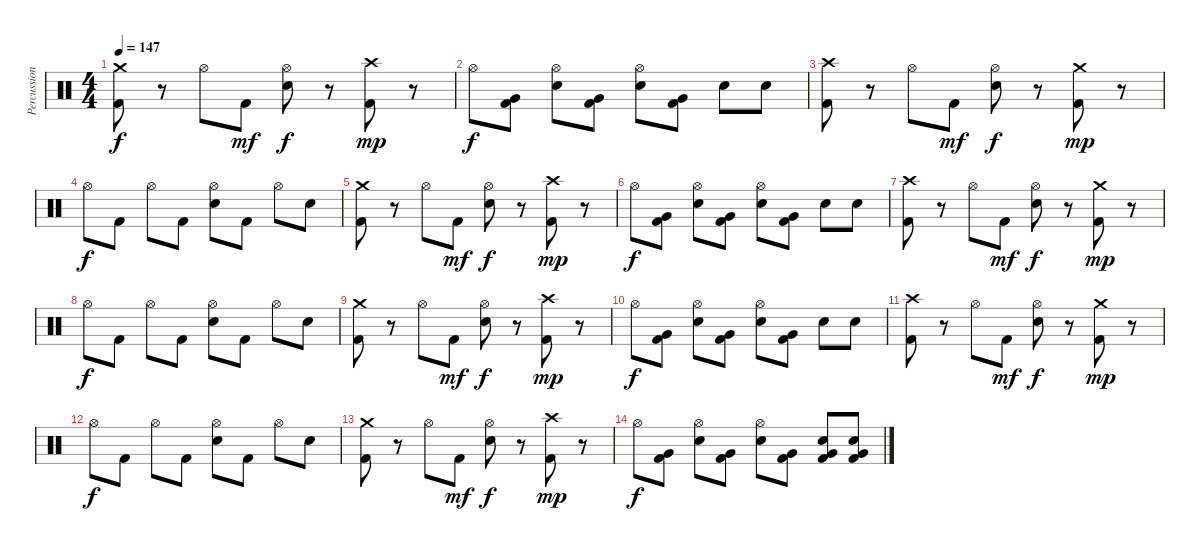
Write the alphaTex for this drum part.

\track ("Percussion" "Percussion") {instrument percussion}
\staff {score}
\articulation defaults
\ts (4 4)
\tempo 147
\clef neutral
\ks c
("Kick (hit) 2" "Crash medium (hit)").8{dy f} r.8 "Hi-Hat (open)".8 "Kick (hit) 2".8{dy mf} ("Electric Snare (hit)" "Hi-Hat (open)").8{dy f} r.8 ("Kick (hit) 2" "Crash high (hit)").8{dy mp} r.8 |
"Hi-Hat (open)".8{dy f} ("Kick (hit) 2" "Very Low Tom (hit)").8 ("Electric Snare (hit)" "Hi-Hat (open)").8 ("Kick (hit) 2" "Very Low Tom (hit)").8 ("Electric Snare (hit)" "Hi-Hat (open)").8 ("Kick (hit) 2" "Very Low Tom (hit)").8 "Electric Snare (hit)".8 "Electric Snare (hit)".8 |
("Kick (hit) 2" "Crash high (hit)").8 r.8 "Hi-Hat (open)".8 "Kick (hit) 2".8{dy mf} ("Electric Snare (hit)" "Hi-Hat (open)").8{dy f} r.8 ("Kick (hit) 2" "Crash medium (hit)").8{dy mp} r.8 |
"Hi-Hat (open)".8{dy f} "Kick (hit) 2".8 "Hi-Hat (open)".8 "Kick (hit) 2".8 ("Electric Snare (hit)" "Hi-Hat (open)").8 "Kick (hit) 2".8 "Hi-Hat (open)".8 "Electric Snare (hit)".8 |
("Kick (hit) 2" "Crash medium (hit)").8 r.8 "Hi-Hat (open)".8 "Kick (hit) 2".8{dy mf} ("Electric Snare (hit)" "Hi-Hat (open)").8{dy f} r.8 ("Kick (hit) 2" "Crash high (hit)").8{dy mp} r.8 |
"Hi-Hat (open)".8{dy f} ("Kick (hit) 2" "Very Low Tom (hit)").8 ("Electric Snare (hit)" "Hi-Hat (open)").8 ("Kick (hit) 2" "Very Low Tom (hit)").8 ("Electric Snare (hit)" "Hi-Hat (open)").8 ("Kick (hit) 2" "Very Low Tom (hit)").8 "Electric Snare (hit)".8 "Electric Snare (hit)".8 |
("Kick (hit) 2" "Crash high (hit)").8 r.8 "Hi-Hat (open)".8 "Kick (hit) 2".8{dy mf} ("Electric Snare (hit)" "Hi-Hat (open)").8{dy f} r.8 ("Kick (hit) 2" "Crash medium (hit)").8{dy mp} r.8 |
"Hi-Hat (open)".8{dy f} "Kick (hit) 2".8 "Hi-Hat (open)".8 "Kick (hit) 2".8 ("Electric Snare (hit)" "Hi-Hat (open)").8 "Kick (hit) 2".8 "Hi-Hat (open)".8 "Electric Snare (hit)".8 |
("Kick (hit) 2" "Crash medium (hit)").8 r.8 "Hi-Hat (open)".8 "Kick (hit) 2".8{dy mf} ("Electric Snare (hit)" "Hi-Hat (open)").8{dy f} r.8 ("Kick (hit) 2" "Crash high (hit)").8{dy mp} r.8 |
"Hi-Hat (open)".8{dy f} ("Kick (hit) 2" "Very Low Tom (hit)").8 ("Electric Snare (hit)" "Hi-Hat (open)").8 ("Kick (hit) 2" "Very Low Tom (hit)").8 ("Electric Snare (hit)" "Hi-Hat (open)").8 ("Kick (hit) 2" "Very Low Tom (hit)").8 "Electric Snare (hit)".8 "Electric Snare (hit)".8 |
("Kick (hit) 2" "Crash high (hit)").8 r.8 "Hi-Hat (open)".8 "Kick (hit) 2".8{dy mf} ("Electric Snare (hit)" "Hi-Hat (open)").8{dy f} r.8 ("Kick (hit) 2" "Crash medium (hit)").8{dy mp} r.8 |
"Hi-Hat (open)".8{dy f} "Kick (hit) 2".8 "Hi-Hat (open)".8 "Kick (hit) 2".8 ("Electric Snare (hit)" "Hi-Hat (open)").8 "Kick (hit) 2".8 "Hi-Hat (open)".8 "Electric Snare (hit)".8 |
("Kick (hit) 2" "Crash medium (hit)").8 r.8 "Hi-Hat (open)".8 "Kick (hit) 2".8{dy mf} ("Electric Snare (hit)" "Hi-Hat (open)").8{dy f} r.8 ("Kick (hit) 2" "Crash high (hit)").8{dy mp} r.8 |
"Hi-Hat (open)".8{dy f} ("Kick (hit) 2" "Very Low Tom (hit)").8 ("Electric Snare (hit)" "Hi-Hat (open)").8 ("Kick (hit) 2" "Very Low Tom (hit)").8 ("Electric Snare (hit)" "Hi-Hat (open)").8 ("Kick (hit) 2" "Very Low Tom (hit)").8 ("Kick (hit) 2" "Electric Snare (hit)" "Very Low Tom (hit)").8 ("Kick (hit) 2" "Electric Snare (hit)" "Very Low Tom (hit)").8
